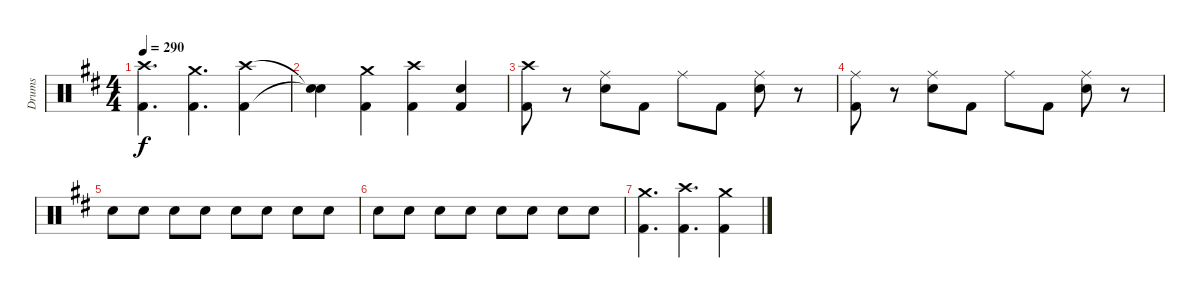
\track ("Drums" "Drums") {instrument percussion}
\staff {score}
\articulation defaults
\ts (4 4)
\tempo 290
\clef neutral
\ks d
("Crash high (hit)" "Kick (hit) 2").4{d dy f} ("Crash medium (hit)" "Kick (hit) 2").4{d} ("Crash high (hit)" "Kick (hit) 2").4 |
("Snare (hit)"{t} "Snare (hit)"{t}).4 ("Crash medium (hit)" "Kick (hit) 2").4 ("Crash high (hit)" "Kick (hit) 2").4 ("Electric Snare (hit)" "Kick (hit) 2").4 |
("Crash high (hit)" "Kick (hit) 2").8 r.8 ("Ride (middle)" "Electric Snare (hit)").8 "Kick (hit) 2".8 "Ride (middle)".8 "Kick (hit) 2".8 ("Ride (middle)" "Electric Snare (hit)").8 r.8 |
("Ride (middle)" "Kick (hit) 2").8 r.8 ("Ride (middle)" "Electric Snare (hit)").8 "Kick (hit) 2".8 "Ride (middle)".8 "Kick (hit) 2".8 ("Ride (middle)" "Electric Snare (hit)").8 r.8 |
"Electric Snare (hit)".8 "Electric Snare (hit)".8 "Electric Snare (hit)".8 "Electric Snare (hit)".8 "Electric Snare (hit)".8 "Electric Snare (hit)".8 "Electric Snare (hit)".8 "Electric Snare (hit)".8 |
"Electric Snare (hit)".8 "Electric Snare (hit)".8 "Electric Snare (hit)".8 "Electric Snare (hit)".8 "Electric Snare (hit)".8 "Electric Snare (hit)".8 "Electric Snare (hit)".8 "Electric Snare (hit)".8 |
("Crash medium (hit)" "Kick (hit) 2").4{d} ("Crash high (hit)" "Kick (hit) 2").4{d} ("Crash medium (hit)" "Kick (hit) 2").4
